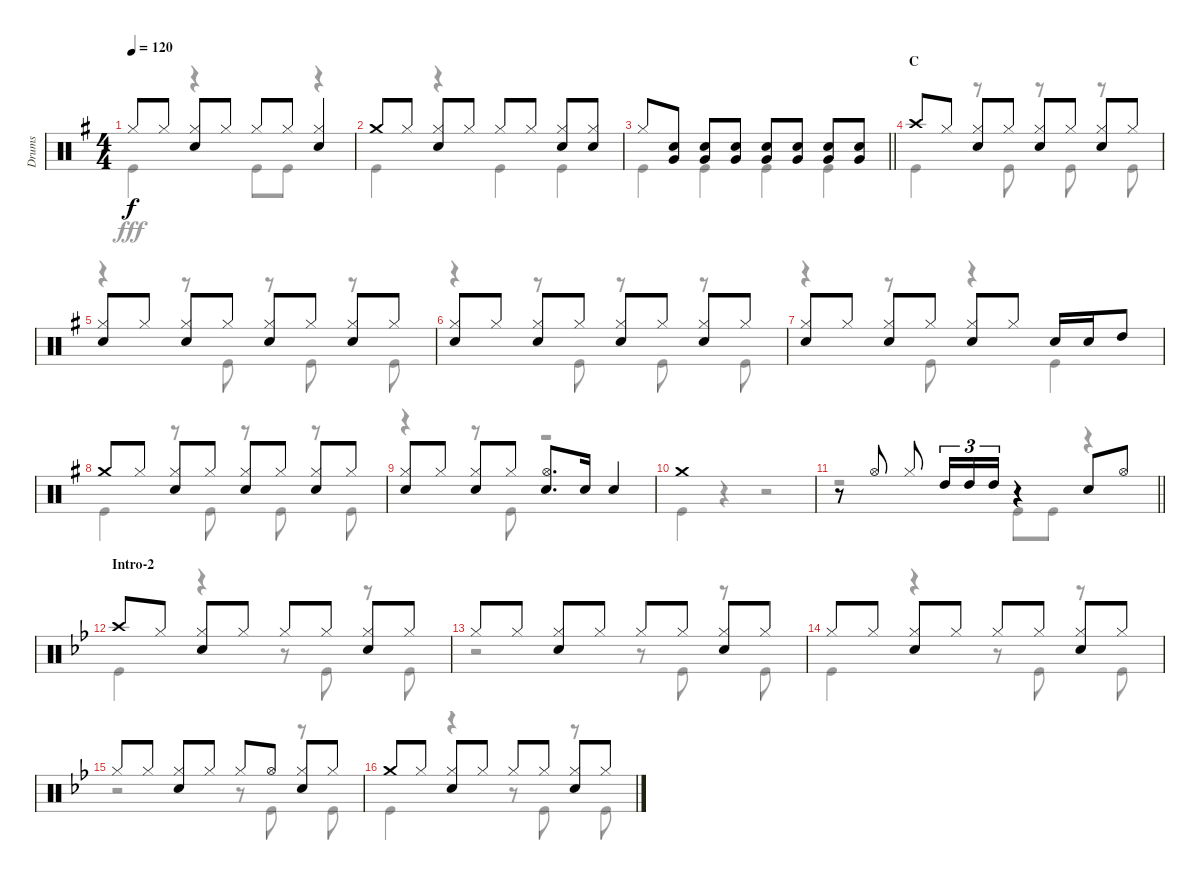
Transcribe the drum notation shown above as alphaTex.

\track ("Drums" "Drums") {instrument percussion}
\staff {score}
\articulation defaults
\voice
\ts (4 4)
\tempo 120
\clef neutral
\ks g "Hi-Hat (closed)".8{dy f} "Hi-Hat (closed)".8
("Hi-Hat (closed)" "Snare (hit) 2").8 "Hi-Hat (closed)".8 "Hi-Hat (closed)".8 "Hi-Hat (closed)".8 ("Hi-Hat (closed)" "Snare (hit) 2").4 |
"Crash medium (hit)".8 "Hi-Hat (closed)".8 ("Hi-Hat (closed)" "Snare (hit) 2").8 "Hi-Hat (closed)".8 "Hi-Hat (closed)".8 "Hi-Hat (closed)".8 ("Hi-Hat (closed)" "Snare (hit) 2").8 ("Hi-Hat (closed)" "Snare (hit) 2").8 |
\barLineRight lightlight "Hi-Hat (closed)".8
("Snare (hit) 2" "Very Low Tom (hit)").8 ("Snare (hit) 2" "Very Low Tom (hit)").8 ("Snare (hit) 2" "Very Low Tom (hit)").8 ("Snare (hit) 2" "Very Low Tom (hit)").8 ("Snare (hit) 2" "Very Low Tom (hit)").8 ("Snare (hit) 2" "Very Low Tom (hit)").8 ("Snare (hit) 2" "Very Low Tom (hit)").8 |
\section ("" "C")
"Crash high (hit)".8 "Hi-Hat (closed)".8 ("Hi-Hat (closed)" "Snare (hit) 2").8 "Hi-Hat (closed)".8 ("Hi-Hat (closed)" "Snare (hit) 2").8 "Hi-Hat (closed)".8 ("Hi-Hat (closed)" "Snare (hit) 2").8 "Hi-Hat (closed)".8 |
("Hi-Hat (closed)" "Snare (hit) 2").8 "Hi-Hat (closed)".8 ("Hi-Hat (closed)" "Snare (hit) 2").8 "Hi-Hat (closed)".8 ("Hi-Hat (closed)" "Snare (hit) 2").8 "Hi-Hat (closed)".8 ("Hi-Hat (closed)" "Snare (hit) 2").8 "Hi-Hat (closed)".8 |
("Hi-Hat (closed)" "Snare (hit) 2").8 "Hi-Hat (closed)".8 ("Hi-Hat (closed)" "Snare (hit) 2").8 "Hi-Hat (closed)".8 ("Hi-Hat (closed)" "Snare (hit) 2").8 "Hi-Hat (closed)".8 ("Hi-Hat (closed)" "Snare (hit) 2").8 "Hi-Hat (closed)".8 |
("Hi-Hat (closed)" "Snare (hit) 2").8 "Hi-Hat (closed)".8 ("Hi-Hat (closed)" "Snare (hit) 2").8 "Hi-Hat (closed)".8 ("Hi-Hat (closed)" "Snare (hit) 2").8 "Hi-Hat (closed)".8 "Snare (hit) 2".16 "Snare (hit) 2".16 "High Tom (hit)".8 |
"Crash medium (hit)".8 "Hi-Hat (closed)".8 ("Hi-Hat (closed)" "Snare (hit) 2").8 "Hi-Hat (closed)".8 ("Hi-Hat (closed)" "Snare (hit) 2").8 "Hi-Hat (closed)".8 ("Hi-Hat (closed)" "Snare (hit) 2").8 "Hi-Hat (closed)".8 |
("Hi-Hat (closed)" "Snare (hit) 2").8 "Hi-Hat (closed)".8 ("Hi-Hat (closed)" "Snare (hit) 2").8 "Hi-Hat (closed)".8 ("Hi-Hat (open)" "Snare (hit) 2").8{d} "Snare (hit) 2".16 "Snare (hit) 2".4 |
"Crash medium (hit)".1 |
\barLineRight lightlight
r.8 "Hi-Hat (open)".8 "Hi-Hat (closed)".8 "High Tom (hit)".16{tu (3 2)} "High Tom (hit)".16{tu (3 2)} "High Tom (hit)".16{tu (3 2)} r.4 "Snare (hit) 2".8 "Hi-Hat (open)".8 |
\section ("" "Intro-2")
\ks bb "Crash high (hit)".8 "Hi-Hat (closed)".8
("Hi-Hat (closed)" "Snare (hit) 2").8 "Hi-Hat (closed)".8 "Hi-Hat (closed)".8 "Hi-Hat (closed)".8 ("Hi-Hat (closed)" "Snare (hit) 2").8 "Hi-Hat (closed)".8 |
"Hi-Hat (closed)".8 "Hi-Hat (closed)".8 ("Hi-Hat (closed)" "Snare (hit) 2").8 "Hi-Hat (closed)".8 "Hi-Hat (closed)".8 "Hi-Hat (closed)".8 ("Hi-Hat (closed)" "Snare (hit) 2").8 "Hi-Hat (closed)".8 |
"Hi-Hat (closed)".8 "Hi-Hat (closed)".8 ("Hi-Hat (closed)" "Snare (hit) 2").8 "Hi-Hat (closed)".8 "Hi-Hat (closed)".8 "Hi-Hat (closed)".8 ("Hi-Hat (closed)" "Snare (hit) 2").8 "Hi-Hat (closed)".8 |
"Hi-Hat (closed)".8 "Hi-Hat (closed)".8 ("Hi-Hat (closed)" "Snare (hit) 2").8 "Hi-Hat (closed)".8 "Hi-Hat (closed)".8 "Hi-Hat (open)".8 ("Hi-Hat (closed)" "Snare (hit) 2").8 "Hi-Hat (closed)".8 |
"Crash medium (hit)".8 "Hi-Hat (closed)".8 ("Hi-Hat (closed)" "Snare (hit) 2").8 "Hi-Hat (closed)".8 "Hi-Hat (closed)".8 "Hi-Hat (closed)".8 ("Hi-Hat (closed)" "Snare (hit) 2").8 "Hi-Hat (closed)".8
\voice
\clef neutral
\ottava regular
\simile none
\ks g "Kick (hit)".4{dy fff}
r.4 "Kick (hit)".8 "Kick (hit)".8 r.4 |
"Kick (hit)".4 r.4 "Kick (hit)".4 "Kick (hit)".4 |
\barLineRight lightlight "Kick (hit)".4 "Kick (hit)".4 "Kick (hit)".4 "Kick (hit)".4
|
"Kick (hit)".4 r.8 "Kick (hit)".8 r.8 "Kick (hit)".8 r.8 "Kick (hit)".8 |
r.4 r.8 "Kick (hit)".8 r.8 "Kick (hit)".8 r.8 "Kick (hit)".8 |
r.4 r.8 "Kick (hit)".8 r.8 "Kick (hit)".8 r.8 "Kick (hit)".8 |
r.4 r.8 "Kick (hit)".8 r.4 "Kick (hit)".4 |
"Kick (hit)".4 r.8 "Kick (hit)".8 r.8 "Kick (hit)".8 r.8 "Kick (hit)".8 |
r.4 r.8 "Kick (hit)".8 r.2 |
"Kick (hit)".4 r.4 r.2 |
\barLineRight lightlight
r.2 "Kick (hit)".8 "Kick (hit)".8 r.4 |
\ks bb "Kick (hit)".4
r.4 r.8 "Kick (hit)".8 r.8 "Kick (hit)".8 |
r.2 r.8 "Kick (hit)".8 r.8 "Kick (hit)".8 |
"Kick (hit)".4 r.4 r.8 "Kick (hit)".8 r.8 "Kick (hit)".8 |
r.2 r.8 "Kick (hit)".8 r.8 "Kick (hit)".8 |
"Kick (hit)".4 r.4 r.8 "Kick (hit)".8 r.8 "Kick (hit)".8
